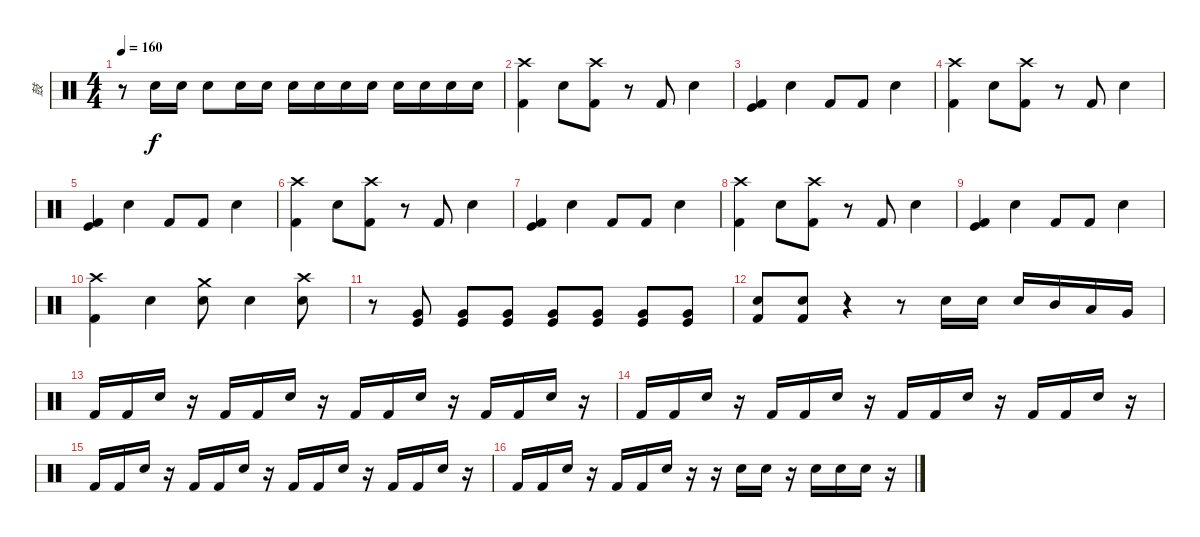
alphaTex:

\track ("鼓" "鼓") {instrument percussion}
\staff {score}
\articulation defaults
\ts (4 4)
\tempo 160
\clef neutral
\ks c
r.8{dy f} "Snare (hit) 2".16 "Snare (hit) 2".16 "Snare (hit) 2".8 "Snare (hit) 2".16 "Snare (hit) 2".16 "Snare (hit) 2".16 "Snare (hit) 2".16 "Snare (hit) 2".16 "Snare (hit) 2".16 "Snare (hit) 2".16 "Snare (hit) 2".16 "Snare (hit) 2".16 "Snare (hit) 2".16 |
("Crash high (hit)" "Kick (hit) 2").4 "Snare (hit) 2".8 ("Crash high (hit)" "Kick (hit) 2").8 r.8 "Kick (hit) 2".8 "Snare (hit) 2".4 |
("Kick (hit) 2" "Kick (hit)").4 "Snare (hit) 2".4 "Kick (hit) 2".8 "Kick (hit) 2".8 "Snare (hit) 2".4 |
("Crash high (hit)" "Kick (hit) 2").4 "Snare (hit) 2".8 ("Crash high (hit)" "Kick (hit) 2").8 r.8 "Kick (hit) 2".8 "Snare (hit) 2".4 |
("Kick (hit) 2" "Kick (hit)").4 "Snare (hit) 2".4 "Kick (hit) 2".8 "Kick (hit) 2".8 "Snare (hit) 2".4 |
("Crash high (hit)" "Kick (hit) 2").4 "Snare (hit) 2".8 ("Crash high (hit)" "Kick (hit) 2").8 r.8 "Kick (hit) 2".8 "Snare (hit) 2".4 |
("Kick (hit) 2" "Kick (hit)").4 "Snare (hit) 2".4 "Kick (hit) 2".8 "Kick (hit) 2".8 "Snare (hit) 2".4 |
("Crash high (hit)" "Kick (hit) 2").4 "Snare (hit) 2".8 ("Crash high (hit)" "Kick (hit) 2").8 r.8 "Kick (hit) 2".8 "Snare (hit) 2".4 |
("Kick (hit) 2" "Kick (hit)").4 "Snare (hit) 2".4 "Kick (hit) 2".8 "Kick (hit) 2".8 "Snare (hit) 2".4 |
("Crash high (hit)" "Kick (hit) 2").4 "Snare (hit) 2".4 ("Crash medium (hit)" "Snare (hit) 2").8 "Snare (hit) 2".4 ("Crash high (hit)" "Snare (hit) 2").8 |
r.8 ("Very Low Tom (hit)" "Kick (hit)").8 ("Very Low Tom (hit)" "Kick (hit)").8 ("Very Low Tom (hit)" "Kick (hit)").8 ("Very Low Tom (hit)" "Kick (hit)").8 ("Very Low Tom (hit)" "Kick (hit)").8 ("Very Low Tom (hit)" "Kick (hit)").8 ("Very Low Tom (hit)" "Kick (hit)").8 |
("Snare (hit) 2" "Kick (hit) 2").8 ("Snare (hit) 2" "Kick (hit) 2").8 r.4 r.8 "Snare (hit) 2".16 "Snare (hit) 2".16 "Snare (hit) 2".16 "Mid Tom (hit)".16 "Low Tom (hit)".16 "Very Low Tom (hit)".16 |
"Kick (hit) 2".16 "Kick (hit) 2".16 "Snare (hit) 2".16 r.16 "Kick (hit) 2".16 "Kick (hit) 2".16 "Snare (hit) 2".16 r.16 "Kick (hit) 2".16 "Kick (hit) 2".16 "Snare (hit) 2".16 r.16 "Kick (hit) 2".16 "Kick (hit) 2".16 "Snare (hit) 2".16 r.16 |
"Kick (hit) 2".16 "Kick (hit) 2".16 "Snare (hit) 2".16 r.16 "Kick (hit) 2".16 "Kick (hit) 2".16 "Snare (hit) 2".16 r.16 "Kick (hit) 2".16 "Kick (hit) 2".16 "Snare (hit) 2".16 r.16 "Kick (hit) 2".16 "Kick (hit) 2".16 "Snare (hit) 2".16 r.16 |
"Kick (hit) 2".16 "Kick (hit) 2".16 "Snare (hit) 2".16 r.16 "Kick (hit) 2".16 "Kick (hit) 2".16 "Snare (hit) 2".16 r.16 "Kick (hit) 2".16 "Kick (hit) 2".16 "Snare (hit) 2".16 r.16 "Kick (hit) 2".16 "Kick (hit) 2".16 "Snare (hit) 2".16 r.16 |
"Kick (hit) 2".16 "Kick (hit) 2".16 "Snare (hit) 2".16 r.16 "Kick (hit) 2".16 "Kick (hit) 2".16 "Snare (hit) 2".16 r.16 r.16 "Snare (hit) 2".16 "Snare (hit) 2".16 r.16 "Snare (hit) 2".16 "Snare (hit) 2".16 "Snare (hit) 2".16 r.16
